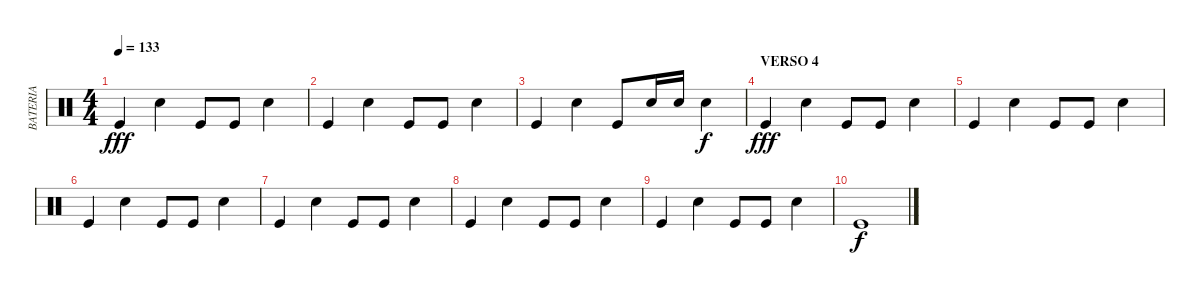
\track ("BATERIA" "BATERIA") {instrument percussion}
\staff {score}
\articulation defaults
\ts (4 4)
\tempo 133
\clef neutral
\ks c "Kick (hit)".4{dy fff} "Electric Snare (hit)".4 "Kick (hit)".8 "Kick (hit)".8 "Electric Snare (hit)".4
|
"Kick (hit)".4 "Electric Snare (hit)".4 "Kick (hit)".8 "Kick (hit)".8 "Electric Snare (hit)".4 |
"Kick (hit)".4 "Electric Snare (hit)".4 "Kick (hit)".8 "Electric Snare (hit)".16 "Electric Snare (hit)".16 "Electric Snare (hit)".4{dy f} |
\section ("" "VERSO 4")
"Kick (hit)".4{dy fff} "Electric Snare (hit)".4 "Kick (hit)".8 "Kick (hit)".8 "Electric Snare (hit)".4 |
"Kick (hit)".4 "Electric Snare (hit)".4 "Kick (hit)".8 "Kick (hit)".8 "Electric Snare (hit)".4 |
"Kick (hit)".4 "Electric Snare (hit)".4 "Kick (hit)".8 "Kick (hit)".8 "Electric Snare (hit)".4 |
"Kick (hit)".4 "Electric Snare (hit)".4 "Kick (hit)".8 "Kick (hit)".8 "Electric Snare (hit)".4 |
"Kick (hit)".4 "Electric Snare (hit)".4 "Kick (hit)".8 "Kick (hit)".8 "Electric Snare (hit)".4 |
"Kick (hit)".4 "Electric Snare (hit)".4 "Kick (hit)".8 "Kick (hit)".8 "Electric Snare (hit)".4 |
"Kick (hit)".1{dy f}
